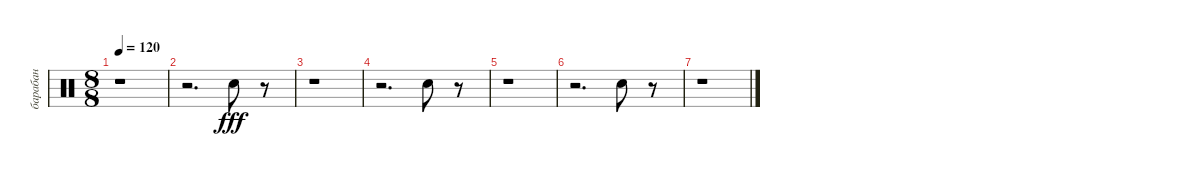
\track ("барабан" "барабан") {instrument percussion}
\staff {score}
\articulation defaults
\ts (8 8)
\tempo 120
\clef neutral
\ks c
r.1{dy fff} |
r.2{d} "Electric Snare (hit)".8{volume 6} r.8 |
r.1 |
r.2{d} "Electric Snare (hit)".8{volume 3} r.8 |
r.1 |
r.2{d} "Electric Snare (hit)".8{volume 0} r.8 |
r.1
